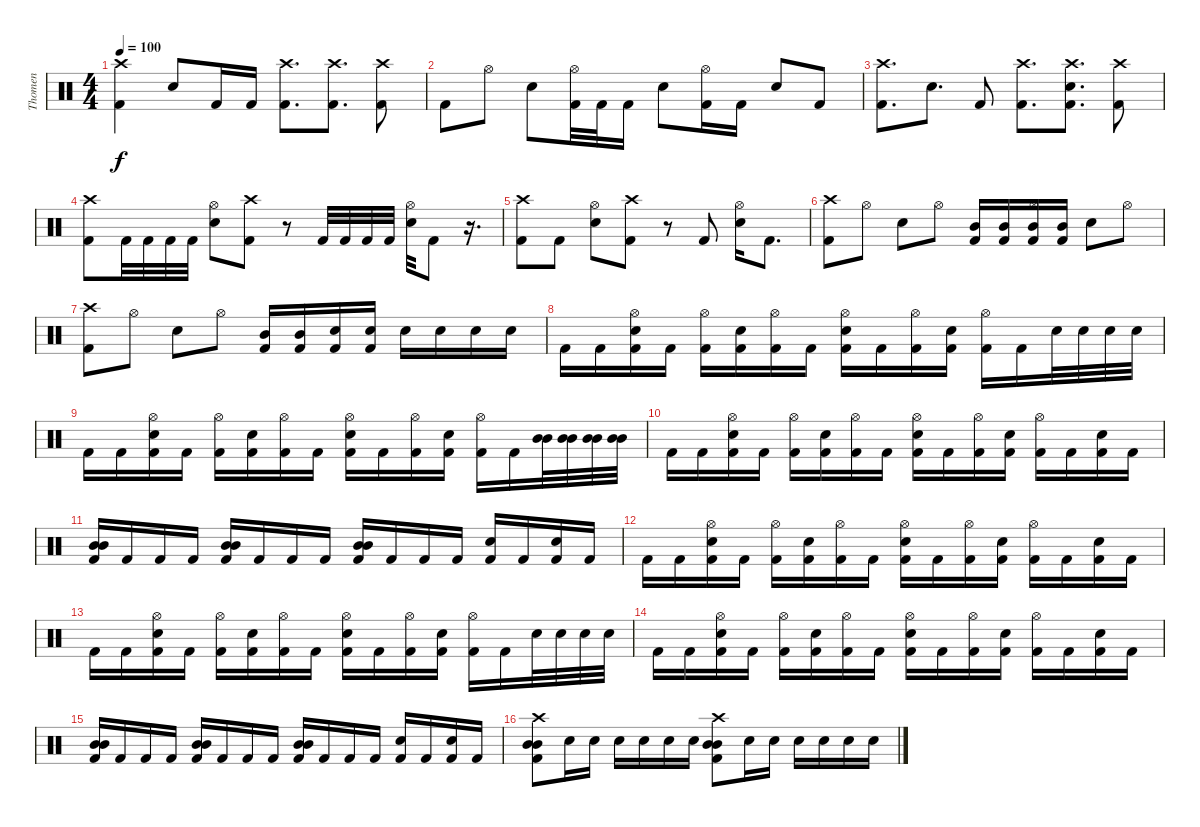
\track ("Thomen" "Thomen") {instrument percussion}
\staff {score}
\articulation defaults
\ts (4 4)
\tempo 100
\clef neutral
\ks c
("Crash high (hit)" "Kick (hit) 2").4{dy f} "Snare (hit) 2".8 "Kick (hit) 2".16 "Kick (hit) 2".16 ("Crash high (hit)" "Kick (hit) 2").8{d} ("Crash high (hit)" "Kick (hit) 2").8{d} ("Crash high (hit)" "Kick (hit) 2").8 |
"Kick (hit) 2".8 "Hi-Hat (open)".8 "Snare (hit) 2".8 ("Hi-Hat (open)" "Kick (hit) 2").32 "Kick (hit) 2".32 "Kick (hit) 2".16 "Snare (hit) 2".8 ("Hi-Hat (open)" "Kick (hit) 2").16 "Kick (hit) 2".16 "Snare (hit) 2".8 "Kick (hit) 2".8 |
("Crash high (hit)" "Kick (hit) 2").8{d} "Snare (hit) 2".8{d} "Kick (hit) 2".8 ("Crash high (hit)" "Kick (hit) 2").8{d} ("Crash high (hit)" "Snare (hit) 2" "Kick (hit) 2").8{d} ("Crash high (hit)" "Kick (hit) 2").8 |
("Crash high (hit)" "Kick (hit) 2").8 "Kick (hit) 2".32 "Kick (hit) 2".32 "Kick (hit) 2".32 "Kick (hit) 2".32 ("Hi-Hat (open)" "Snare (hit) 2").8 ("Crash high (hit)" "Kick (hit) 2").8 r.8 "Kick (hit) 2".32 "Kick (hit) 2".32 "Kick (hit) 2".32 "Kick (hit) 2".32 ("Hi-Hat (open)" "Snare (hit) 2").32 "Kick (hit) 2".8 r.16{d} |
("Crash high (hit)" "Kick (hit) 2").8 "Kick (hit) 2".8 ("Hi-Hat (open)" "Snare (hit) 2").8 ("Crash high (hit)" "Kick (hit) 2").8 r.8 "Kick (hit) 2".8 ("Hi-Hat (open)" "Snare (hit) 2").16 "Kick (hit) 2".8{d} |
("Crash high (hit)" "Kick (hit) 2").8 "Hi-Hat (open)".8 "Snare (hit) 2".8 "Hi-Hat (open)".8 ("Mid Tom (hit)" "Kick (hit) 2").16 ("Mid Tom (hit)" "Kick (hit) 2").16 ("Hi-Hat (open)" "Mid Tom (hit)" "Kick (hit) 2").16 ("Mid Tom (hit)" "Kick (hit) 2").16 "Snare (hit) 2".8 "Hi-Hat (open)".8 |
("Crash high (hit)" "Kick (hit) 2").8 "Hi-Hat (open)".8 "Snare (hit) 2".8 "Hi-Hat (open)".8 ("Mid Tom (hit)" "Kick (hit) 2").16 ("Mid Tom (hit)" "Kick (hit) 2").16 ("Snare (hit) 2" "Kick (hit) 2").16 ("Snare (hit) 2" "Kick (hit) 2").16 "Snare (hit) 2".16 "Snare (hit) 2".16 "Snare (hit) 2".16 "Snare (hit) 2".16 |
"Kick (hit) 2".16 "Kick (hit) 2".16 ("Hi-Hat (open)" "Snare (hit) 2" "Kick (hit) 2").16 "Kick (hit) 2".16 ("Hi-Hat (open)" "Kick (hit) 2").16 ("Snare (hit) 2" "Kick (hit) 2").16 ("Hi-Hat (open)" "Kick (hit) 2").16 "Kick (hit) 2".16 ("Hi-Hat (open)" "Snare (hit) 2" "Kick (hit) 2").16 "Kick (hit) 2".16 ("Hi-Hat (open)" "Kick (hit) 2").16 ("Snare (hit) 2" "Kick (hit) 2").16 ("Hi-Hat (open)" "Kick (hit) 2").16 "Kick (hit) 2".16 "Snare (hit) 2".32 "Snare (hit) 2".32 "Snare (hit) 2".32 "Snare (hit) 2".32 |
"Kick (hit) 2".16 "Kick (hit) 2".16 ("Hi-Hat (open)" "Snare (hit) 2" "Kick (hit) 2").16 "Kick (hit) 2".16 ("Hi-Hat (open)" "Kick (hit) 2").16 ("Snare (hit) 2" "Kick (hit) 2").16 ("Hi-Hat (open)" "Kick (hit) 2").16 "Kick (hit) 2".16 ("Hi-Hat (open)" "Snare (hit) 2" "Kick (hit) 2").16 "Kick (hit) 2".16 ("Hi-Hat (open)" "Kick (hit) 2").16 ("Snare (hit) 2" "Kick (hit) 2").16 ("Hi-Hat (open)" "Kick (hit) 2").16 "Kick (hit) 2".16 ("Mid Tom (hit)" "Mid Tom (hit)").32 ("Mid Tom (hit)" "Mid Tom (hit)").32 ("Mid Tom (hit)" "Mid Tom (hit)").32 ("Mid Tom (hit)" "Mid Tom (hit)").32 |
"Kick (hit) 2".16 "Kick (hit) 2".16 ("Hi-Hat (open)" "Snare (hit) 2" "Kick (hit) 2").16 "Kick (hit) 2".16 ("Hi-Hat (open)" "Kick (hit) 2").16 ("Snare (hit) 2" "Kick (hit) 2").16 ("Hi-Hat (open)" "Kick (hit) 2").16 "Kick (hit) 2".16 ("Hi-Hat (open)" "Snare (hit) 2" "Kick (hit) 2").16 "Kick (hit) 2".16 ("Hi-Hat (open)" "Kick (hit) 2").16 ("Snare (hit) 2" "Kick (hit) 2").16 ("Hi-Hat (open)" "Kick (hit) 2").16 "Kick (hit) 2".16 ("Snare (hit) 2" "Kick (hit) 2").16 "Kick (hit) 2".16 |
("Mid Tom (hit)" "Mid Tom (hit)" "Kick (hit) 2").16 "Kick (hit) 2".16 "Kick (hit) 2".16 "Kick (hit) 2".16 ("Mid Tom (hit)" "Mid Tom (hit)" "Kick (hit) 2").16 "Kick (hit) 2".16 "Kick (hit) 2".16 "Kick (hit) 2".16 ("Mid Tom (hit)" "Mid Tom (hit)" "Kick (hit) 2").16 "Kick (hit) 2".16 "Kick (hit) 2".16 "Kick (hit) 2".16 ("Snare (hit) 2" "Kick (hit) 2").16 "Kick (hit) 2".16 ("Snare (hit) 2" "Kick (hit) 2").16 "Kick (hit) 2".16 |
"Kick (hit) 2".16 "Kick (hit) 2".16 ("Hi-Hat (open)" "Snare (hit) 2" "Kick (hit) 2").16 "Kick (hit) 2".16 ("Hi-Hat (open)" "Kick (hit) 2").16 ("Snare (hit) 2" "Kick (hit) 2").16 ("Hi-Hat (open)" "Kick (hit) 2").16 "Kick (hit) 2".16 ("Hi-Hat (open)" "Snare (hit) 2" "Kick (hit) 2").16 "Kick (hit) 2".16 ("Hi-Hat (open)" "Kick (hit) 2").16 ("Snare (hit) 2" "Kick (hit) 2").16 ("Hi-Hat (open)" "Kick (hit) 2").16 "Kick (hit) 2".16 ("Snare (hit) 2" "Kick (hit) 2").16 "Kick (hit) 2".16 |
"Kick (hit) 2".16 "Kick (hit) 2".16 ("Hi-Hat (open)" "Snare (hit) 2" "Kick (hit) 2").16 "Kick (hit) 2".16 ("Hi-Hat (open)" "Kick (hit) 2").16 ("Snare (hit) 2" "Kick (hit) 2").16 ("Hi-Hat (open)" "Kick (hit) 2").16 "Kick (hit) 2".16 ("Hi-Hat (open)" "Snare (hit) 2" "Kick (hit) 2").16 "Kick (hit) 2".16 ("Hi-Hat (open)" "Kick (hit) 2").16 ("Snare (hit) 2" "Kick (hit) 2").16 ("Hi-Hat (open)" "Kick (hit) 2").16 "Kick (hit) 2".16 "Snare (hit) 2".32 "Snare (hit) 2".32 "Snare (hit) 2".32 "Snare (hit) 2".32 |
"Kick (hit) 2".16 "Kick (hit) 2".16 ("Hi-Hat (open)" "Snare (hit) 2" "Kick (hit) 2").16 "Kick (hit) 2".16 ("Hi-Hat (open)" "Kick (hit) 2").16 ("Snare (hit) 2" "Kick (hit) 2").16 ("Hi-Hat (open)" "Kick (hit) 2").16 "Kick (hit) 2".16 ("Hi-Hat (open)" "Snare (hit) 2" "Kick (hit) 2").16 "Kick (hit) 2".16 ("Hi-Hat (open)" "Kick (hit) 2").16 ("Snare (hit) 2" "Kick (hit) 2").16 ("Hi-Hat (open)" "Kick (hit) 2").16 "Kick (hit) 2".16 ("Snare (hit) 2" "Kick (hit) 2").16 "Kick (hit) 2".16 |
("Mid Tom (hit)" "Mid Tom (hit)" "Kick (hit) 2").16 "Kick (hit) 2".16 "Kick (hit) 2".16 "Kick (hit) 2".16 ("Mid Tom (hit)" "Mid Tom (hit)" "Kick (hit) 2").16 "Kick (hit) 2".16 "Kick (hit) 2".16 "Kick (hit) 2".16 ("Mid Tom (hit)" "Mid Tom (hit)" "Kick (hit) 2").16 "Kick (hit) 2".16 "Kick (hit) 2".16 "Kick (hit) 2".16 ("Snare (hit) 2" "Kick (hit) 2").16 "Kick (hit) 2".16 ("Snare (hit) 2" "Kick (hit) 2").16 "Kick (hit) 2".16 |
("Crash high (hit)" "Mid Tom (hit)" "Kick (hit) 2" "Mid Tom (hit)").8 "Snare (hit) 2".16 "Snare (hit) 2".16 "Snare (hit) 2".16 "Snare (hit) 2".16 "Snare (hit) 2".16 "Snare (hit) 2".16 ("Crash high (hit)" "Mid Tom (hit)" "Kick (hit) 2" "Mid Tom (hit)").8 "Snare (hit) 2".16 "Snare (hit) 2".16 "Snare (hit) 2".16 "Snare (hit) 2".16 "Snare (hit) 2".16 "Snare (hit) 2".16
